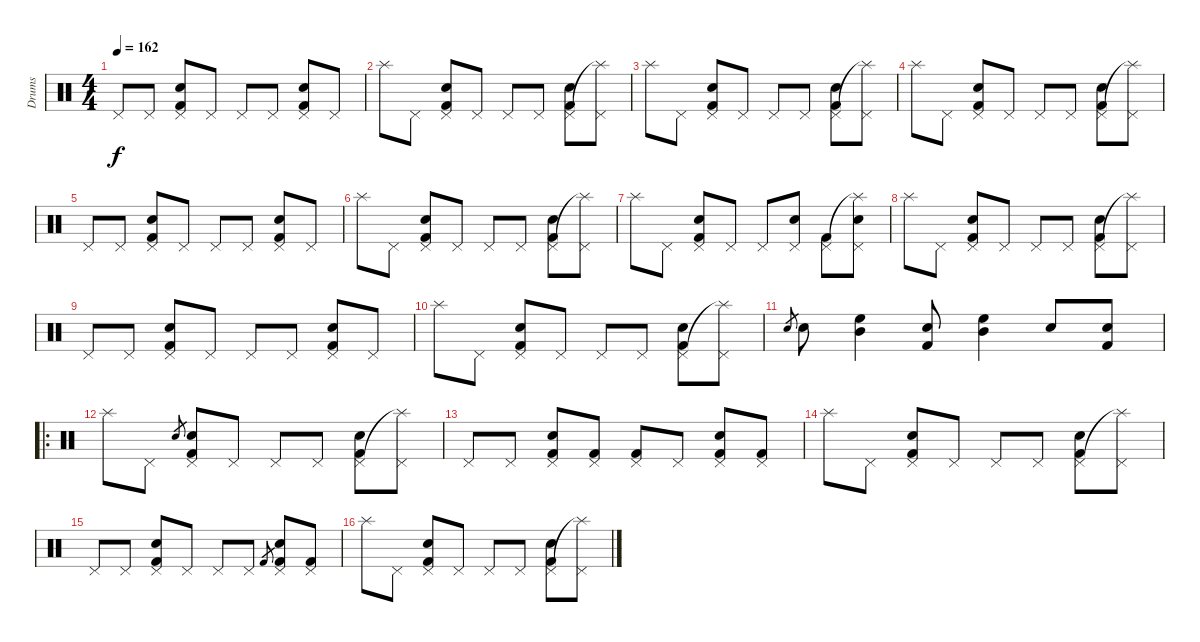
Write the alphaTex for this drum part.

\track ("Drums" "Drums") {instrument percussion}
\staff {score}
\articulation defaults
\ts (4 4)
\tempo 162
\clef neutral
\ks c "Pedal Hi-Hat (hit)".8{dy f} "Pedal Hi-Hat (hit)".8
("Pedal Hi-Hat (hit)" "Snare (hit) 2" "Kick (hit) 2").8 "Pedal Hi-Hat (hit)".8 "Pedal Hi-Hat (hit)".8 "Pedal Hi-Hat (hit)".8 ("Pedal Hi-Hat (hit)" "Snare (hit) 2" "Kick (hit) 2").8 "Pedal Hi-Hat (hit)".8 |
"Splash (hit)".8 "Pedal Hi-Hat (hit)".8 ("Pedal Hi-Hat (hit)" "Snare (hit) 2" "Kick (hit) 2").8 "Pedal Hi-Hat (hit)".8 "Pedal Hi-Hat (hit)".8 "Pedal Hi-Hat (hit)".8 ("Pedal Hi-Hat (hit)" "Snare (hit) 2" "Kick (hit) 2").8 ("Splash (hit)"{t} "Pedal Hi-Hat (hit)").8 |
"Splash (hit)".8 "Pedal Hi-Hat (hit)".8 ("Pedal Hi-Hat (hit)" "Snare (hit) 2" "Kick (hit) 2").8 "Pedal Hi-Hat (hit)".8 "Pedal Hi-Hat (hit)".8 "Pedal Hi-Hat (hit)".8 ("Pedal Hi-Hat (hit)" "Snare (hit) 2" "Kick (hit) 2").8 ("Splash (hit)"{t} "Pedal Hi-Hat (hit)").8 |
"Splash (hit)".8 "Pedal Hi-Hat (hit)".8 ("Pedal Hi-Hat (hit)" "Snare (hit) 2" "Kick (hit) 2").8 "Pedal Hi-Hat (hit)".8 "Pedal Hi-Hat (hit)".8 "Pedal Hi-Hat (hit)".8 ("Pedal Hi-Hat (hit)" "Snare (hit) 2" "Kick (hit) 2").8 ("Splash (hit)"{t} "Pedal Hi-Hat (hit)").8 |
"Pedal Hi-Hat (hit)".8 "Pedal Hi-Hat (hit)".8 ("Pedal Hi-Hat (hit)" "Snare (hit) 2" "Kick (hit) 2").8 "Pedal Hi-Hat (hit)".8 "Pedal Hi-Hat (hit)".8 "Pedal Hi-Hat (hit)".8 ("Pedal Hi-Hat (hit)" "Snare (hit) 2" "Kick (hit) 2").8 "Pedal Hi-Hat (hit)".8 |
"Splash (hit)".8 "Pedal Hi-Hat (hit)".8 ("Pedal Hi-Hat (hit)" "Snare (hit) 2" "Kick (hit) 2").8 "Pedal Hi-Hat (hit)".8 "Pedal Hi-Hat (hit)".8 "Pedal Hi-Hat (hit)".8 ("Pedal Hi-Hat (hit)" "Snare (hit) 2" "Kick (hit) 2").8 ("Splash (hit)"{t} "Pedal Hi-Hat (hit)").8 |
"Splash (hit)".8 "Pedal Hi-Hat (hit)".8 ("Pedal Hi-Hat (hit)" "Snare (hit) 2" "Kick (hit) 2").8 "Pedal Hi-Hat (hit)".8 "Pedal Hi-Hat (hit)".8 ("Pedal Hi-Hat (hit)" "Snare (hit) 2").8 ("Pedal Hi-Hat (hit)" "Kick (hit) 2").8 ("Splash (hit)"{t} "Pedal Hi-Hat (hit)" "Snare (hit) 2").8 |
"Splash (hit)".8 "Pedal Hi-Hat (hit)".8 ("Pedal Hi-Hat (hit)" "Snare (hit) 2" "Kick (hit) 2").8 "Pedal Hi-Hat (hit)".8 "Pedal Hi-Hat (hit)".8 "Pedal Hi-Hat (hit)".8 ("Pedal Hi-Hat (hit)" "Snare (hit) 2" "Kick (hit) 2").8 ("Splash (hit)"{t} "Pedal Hi-Hat (hit)").8 |
"Pedal Hi-Hat (hit)".8 "Pedal Hi-Hat (hit)".8 ("Pedal Hi-Hat (hit)" "Snare (hit) 2" "Kick (hit) 2").8 "Pedal Hi-Hat (hit)".8 "Pedal Hi-Hat (hit)".8 "Pedal Hi-Hat (hit)".8 ("Pedal Hi-Hat (hit)" "Snare (hit) 2" "Kick (hit) 2").8 "Pedal Hi-Hat (hit)".8 |
"Splash (hit)".8 "Pedal Hi-Hat (hit)".8 ("Pedal Hi-Hat (hit)" "Snare (hit) 2" "Kick (hit) 2").8 "Pedal Hi-Hat (hit)".8 "Pedal Hi-Hat (hit)".8 "Pedal Hi-Hat (hit)".8 ("Pedal Hi-Hat (hit)" "Snare (hit) 2" "Kick (hit) 2").8 ("Splash (hit)"{t} "Pedal Hi-Hat (hit)").8 |
"Snare (hit) 2".8{gr} "Snare (hit) 2".8 ("High Floor Tom (hit)" "Mid Tom (hit)").4 ("Snare (hit) 2" "Kick (hit) 2").8 ("High Floor Tom (hit)" "Mid Tom (hit)").4 "Snare (hit) 2".8 ("Snare (hit) 2" "Kick (hit) 2").8 |
\ro "Splash (hit)".8 "Pedal Hi-Hat (hit)".8 "Snare (hit) 2".8{gr}
("Pedal Hi-Hat (hit)" "Snare (hit) 2" "Kick (hit) 2").8 "Pedal Hi-Hat (hit)".8 "Pedal Hi-Hat (hit)".8 "Pedal Hi-Hat (hit)".8 ("Pedal Hi-Hat (hit)" "Snare (hit) 2" "Kick (hit) 2").8 ("Splash (hit)"{t} "Pedal Hi-Hat (hit)").8 |
"Pedal Hi-Hat (hit)".8 "Pedal Hi-Hat (hit)".8 ("Pedal Hi-Hat (hit)" "Snare (hit) 2" "Kick (hit) 2").8 ("Pedal Hi-Hat (hit)" "Kick (hit) 2").8 ("Pedal Hi-Hat (hit)" "Kick (hit) 2").8 "Pedal Hi-Hat (hit)".8 ("Pedal Hi-Hat (hit)" "Snare (hit) 2" "Kick (hit) 2").8 ("Pedal Hi-Hat (hit)" "Kick (hit) 2").8 |
"Splash (hit)".8 "Pedal Hi-Hat (hit)".8 ("Pedal Hi-Hat (hit)" "Snare (hit) 2" "Kick (hit) 2").8 "Pedal Hi-Hat (hit)".8 "Pedal Hi-Hat (hit)".8 "Pedal Hi-Hat (hit)".8 ("Pedal Hi-Hat (hit)" "Snare (hit) 2" "Kick (hit) 2").8 ("Splash (hit)"{t} "Pedal Hi-Hat (hit)").8 |
"Pedal Hi-Hat (hit)".8 "Pedal Hi-Hat (hit)".8 ("Pedal Hi-Hat (hit)" "Snare (hit) 2" "Kick (hit) 2").8 "Pedal Hi-Hat (hit)".8 "Pedal Hi-Hat (hit)".8 "Pedal Hi-Hat (hit)".8 "Kick (hit) 2".8{gr} ("Pedal Hi-Hat (hit)" "Snare (hit) 2" "Kick (hit) 2").8 ("Pedal Hi-Hat (hit)" "Kick (hit) 2").8 |
"Splash (hit)".8 "Pedal Hi-Hat (hit)".8 ("Pedal Hi-Hat (hit)" "Snare (hit) 2" "Kick (hit) 2").8 "Pedal Hi-Hat (hit)".8 "Pedal Hi-Hat (hit)".8 "Pedal Hi-Hat (hit)".8 ("Pedal Hi-Hat (hit)" "Snare (hit) 2" "Kick (hit) 2").8 ("Splash (hit)"{t} "Pedal Hi-Hat (hit)").8
